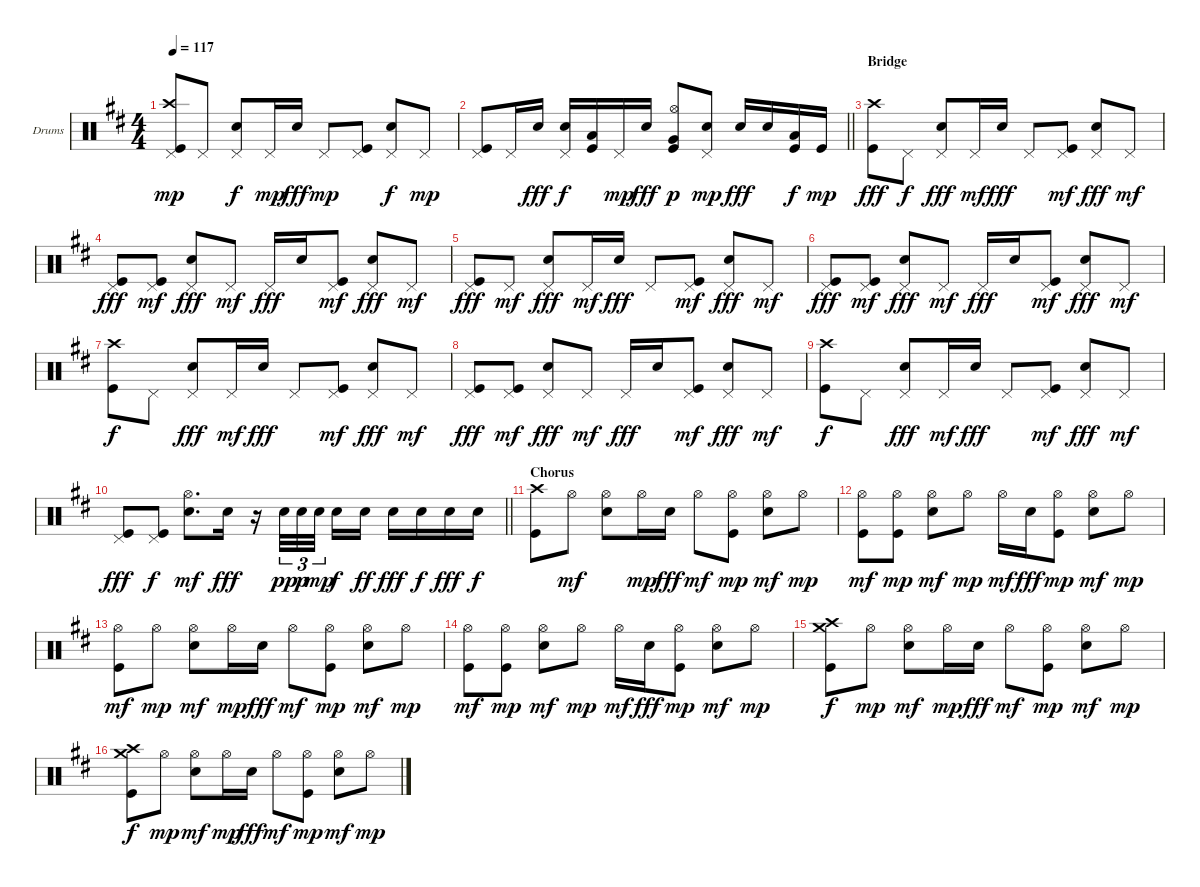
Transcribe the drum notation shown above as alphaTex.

\bracketExtendMode groupsimilarinstruments
\firstSystemTrackNameOrientation horizontal
\otherSystemsTrackNameOrientation horizontal
\track ("Drumkit" "Drums") {instrument percussion}
\staff {score}
\articulation defaults
\ts (4 4)
\tempo 117
\clef neutral
\ks d
("Pedal Hi-Hat (hit)" "Crash high (hit)" "Kick (hit)").8{dy mp} "Pedal Hi-Hat (hit)".8 ("Pedal Hi-Hat (hit)" "Snare (hit) 2").8{dy f} "Pedal Hi-Hat (hit)".16{dy mp} "Snare (hit) 2".16{dy fff} "Pedal Hi-Hat (hit)".8{dy mp} ("Pedal Hi-Hat (hit)" "Kick (hit)").8 ("Pedal Hi-Hat (hit)" "Snare (hit) 2").8{dy f} "Pedal Hi-Hat (hit)".8{dy mp} |
\barLineRight lightlight
("Pedal Hi-Hat (hit)" "Kick (hit)").8 "Pedal Hi-Hat (hit)".16 "Snare (hit) 2".16{dy fff} ("Pedal Hi-Hat (hit)" "Snare (hit) 2").16{dy f} ("Kick (hit)" "Low Tom (hit)").16 "Pedal Hi-Hat (hit)".16{dy mp} "Snare (hit) 2".16{dy fff} ("Hi-Hat (open)" "Kick (hit)" "Very Low Tom (hit)").8{dy p} ("Pedal Hi-Hat (hit)" "Snare (hit) 2").8{dy mp} "Snare (hit) 2".16{dy fff} "Snare (hit) 2".16 ("Kick (hit)" "Low Tom (hit)").16{dy f} "Kick (hit)".16{dy mp} |
\section ("" "Bridge")
("Crash high (hit)" "Kick (hit)").8{dy fff} "Pedal Hi-Hat (hit)".8{dy f} ("Pedal Hi-Hat (hit)" "Snare (hit) 2").8{dy fff} "Pedal Hi-Hat (hit)".16{dy mf} "Snare (hit) 2".16{dy fff} "Pedal Hi-Hat (hit)".8 ("Pedal Hi-Hat (hit)" "Kick (hit)").8{dy mf} ("Pedal Hi-Hat (hit)" "Snare (hit) 2").8{dy fff} "Pedal Hi-Hat (hit)".8{dy mf} |
("Pedal Hi-Hat (hit)" "Kick (hit)").8{dy fff} ("Pedal Hi-Hat (hit)" "Kick (hit)").8{dy mf} ("Pedal Hi-Hat (hit)" "Snare (hit) 2").8{dy fff} "Pedal Hi-Hat (hit)".8{dy mf} "Pedal Hi-Hat (hit)".16{dy fff} "Snare (hit) 2".16 ("Pedal Hi-Hat (hit)" "Kick (hit)").8{dy mf} ("Pedal Hi-Hat (hit)" "Snare (hit) 2").8{dy fff} "Pedal Hi-Hat (hit)".8{dy mf} |
("Pedal Hi-Hat (hit)" "Kick (hit)").8{dy fff} "Pedal Hi-Hat (hit)".8{dy mf} ("Pedal Hi-Hat (hit)" "Snare (hit) 2").8{dy fff} "Pedal Hi-Hat (hit)".16{dy mf} "Snare (hit) 2".16{dy fff} "Pedal Hi-Hat (hit)".8 ("Pedal Hi-Hat (hit)" "Kick (hit)").8{dy mf} ("Pedal Hi-Hat (hit)" "Snare (hit) 2").8{dy fff} "Pedal Hi-Hat (hit)".8{dy mf} |
("Pedal Hi-Hat (hit)" "Kick (hit)").8{dy fff} ("Pedal Hi-Hat (hit)" "Kick (hit)").8{dy mf} ("Pedal Hi-Hat (hit)" "Snare (hit) 2").8{dy fff} "Pedal Hi-Hat (hit)".8{dy mf} "Pedal Hi-Hat (hit)".16{dy fff} "Snare (hit) 2".16 ("Pedal Hi-Hat (hit)" "Kick (hit)").8{dy mf} ("Pedal Hi-Hat (hit)" "Snare (hit) 2").8{dy fff} "Pedal Hi-Hat (hit)".8{dy mf} |
("Crash high (hit)" "Kick (hit)").8{dy f} "Pedal Hi-Hat (hit)".8 ("Pedal Hi-Hat (hit)" "Snare (hit) 2").8{dy fff} "Pedal Hi-Hat (hit)".16{dy mf} "Snare (hit) 2".16{dy fff} "Pedal Hi-Hat (hit)".8 ("Pedal Hi-Hat (hit)" "Kick (hit)").8{dy mf} ("Pedal Hi-Hat (hit)" "Snare (hit) 2").8{dy fff} "Pedal Hi-Hat (hit)".8{dy mf} |
("Pedal Hi-Hat (hit)" "Kick (hit)").8{dy fff} ("Pedal Hi-Hat (hit)" "Kick (hit)").8{dy mf} ("Pedal Hi-Hat (hit)" "Snare (hit) 2").8{dy fff} "Pedal Hi-Hat (hit)".8{dy mf} "Pedal Hi-Hat (hit)".16{dy fff} "Snare (hit) 2".16 ("Pedal Hi-Hat (hit)" "Kick (hit)").8{dy mf} ("Pedal Hi-Hat (hit)" "Snare (hit) 2").8{dy fff} "Pedal Hi-Hat (hit)".8{dy mf} |
("Crash high (hit)" "Kick (hit)").8{dy f} "Pedal Hi-Hat (hit)".8 ("Pedal Hi-Hat (hit)" "Snare (hit) 2").8{dy fff} "Pedal Hi-Hat (hit)".16{dy mf} "Snare (hit) 2".16{dy fff} "Pedal Hi-Hat (hit)".8 ("Pedal Hi-Hat (hit)" "Kick (hit)").8{dy mf} ("Pedal Hi-Hat (hit)" "Snare (hit) 2").8{dy fff} "Pedal Hi-Hat (hit)".8{dy mf} |
\barLineRight lightlight
("Pedal Hi-Hat (hit)" "Kick (hit)").8{dy fff} ("Pedal Hi-Hat (hit)" "Kick (hit)").8{dy f} ("Hi-Hat (open)" "Snare (hit) 2").8{d dy mf} "Snare (hit) 2".16{dy fff} r.16 "Snare (hit) 2".32{tu (3 2) dy pp} "Snare (hit) 2".32{tu (3 2) dy p} "Snare (hit) 2".32{tu (3 2) dy mp} "Snare (hit) 2".16{dy f} "Snare (hit) 2".16{dy ff} "Snare (hit) 2".16{dy fff} "Snare (hit) 2".16{dy f} "Snare (hit) 2".16{dy fff} "Snare (hit) 2".16{dy f} |
\section ("" "Chorus")
("Crash high (hit)" "Kick (hit)").8 "Hi-Hat (open)".8{dy mf} ("Hi-Hat (open)" "Snare (hit) 2").8 "Hi-Hat (open)".16{dy mp} "Snare (hit) 2".16{dy fff} "Hi-Hat (open)".8{dy mf} ("Hi-Hat (open)" "Kick (hit)").8{dy mp} ("Hi-Hat (open)" "Snare (hit) 2").8{dy mf} "Hi-Hat (open)".8{dy mp} |
("Hi-Hat (open)" "Kick (hit)").8{dy mf} ("Hi-Hat (open)" "Kick (hit)").8{dy mp} ("Hi-Hat (open)" "Snare (hit) 2").8{dy mf} "Hi-Hat (open)".8{dy mp} "Hi-Hat (open)".16{dy mf} "Snare (hit) 2".16{dy fff} ("Hi-Hat (open)" "Kick (hit)").8{dy mp} ("Hi-Hat (open)" "Snare (hit) 2").8{dy mf} "Hi-Hat (open)".8{dy mp} |
("Hi-Hat (open)" "Kick (hit)").8{dy mf} "Hi-Hat (open)".8{dy mp} ("Hi-Hat (open)" "Snare (hit) 2").8{dy mf} "Hi-Hat (open)".16{dy mp} "Snare (hit) 2".16{dy fff} "Hi-Hat (open)".8{dy mf} ("Hi-Hat (open)" "Kick (hit)").8{dy mp} ("Hi-Hat (open)" "Snare (hit) 2").8{dy mf} "Hi-Hat (open)".8{dy mp} |
("Hi-Hat (open)" "Kick (hit)").8{dy mf} ("Hi-Hat (open)" "Kick (hit)").8{dy mp} ("Hi-Hat (open)" "Snare (hit) 2").8{dy mf} "Hi-Hat (open)".8{dy mp} "Hi-Hat (open)".16{dy mf} "Snare (hit) 2".16{dy fff} ("Hi-Hat (open)" "Kick (hit)").8{dy mp} ("Hi-Hat (open)" "Snare (hit) 2").8{dy mf} "Hi-Hat (open)".8{dy mp} |
("Crash high (hit)" "Crash medium (hit)" "Kick (hit)").8{dy f} "Hi-Hat (open)".8{dy mp} ("Hi-Hat (open)" "Snare (hit) 2").8{dy mf} "Hi-Hat (open)".16{dy mp} "Snare (hit) 2".16{dy fff} "Hi-Hat (open)".8{dy mf} ("Hi-Hat (open)" "Kick (hit)").8{dy mp} ("Hi-Hat (open)" "Snare (hit) 2").8{dy mf} "Hi-Hat (open)".8{dy mp} |
("Crash medium (hit)" "Crash high (hit)" "Kick (hit)").8{dy f} "Hi-Hat (open)".8{dy mp} ("Hi-Hat (open)" "Snare (hit) 2").8{dy mf} "Hi-Hat (open)".16{dy mp} "Snare (hit) 2".16{dy fff} "Hi-Hat (open)".8{dy mf} ("Hi-Hat (open)" "Kick (hit)").8{dy mp} ("Hi-Hat (open)" "Snare (hit) 2").8{dy mf} "Hi-Hat (open)".8{dy mp}
